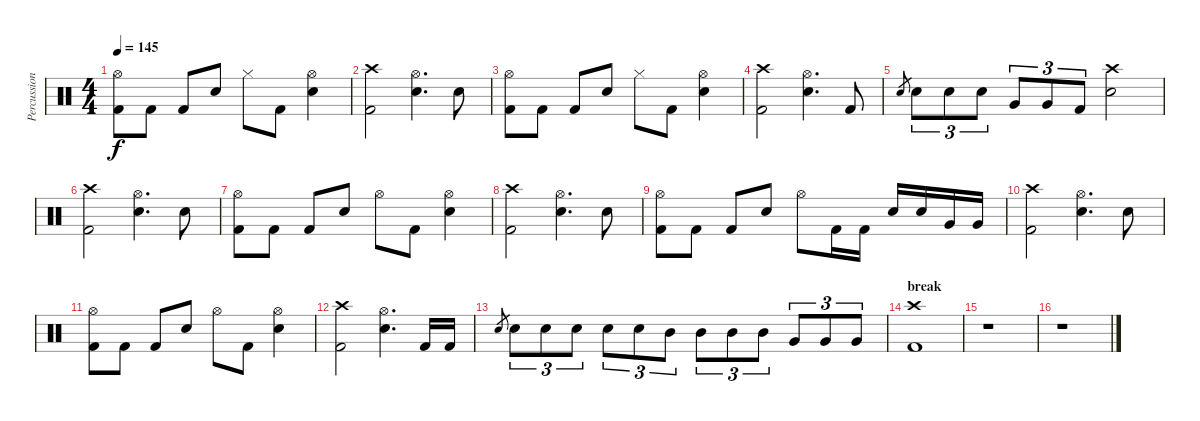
\track ("Percussion" "Percussion") {instrument percussion}
\staff {score}
\articulation defaults
\ts (4 4)
\tempo 145
\clef neutral
\ks c
("Hi-Hat (open)" "Kick (hit) 2").8{dy f} "Kick (hit) 2".8 "Kick (hit) 2".8 "Snare (hit) 2".8 "Hi-Hat (closed)".8 "Kick (hit) 2".8 ("Hi-Hat (open)" "Snare (hit) 2").4 |
("Crash high (hit)" "Kick (hit) 2").2 ("Hi-Hat (open)" "Snare (hit) 2").4{d} "Snare (hit) 2".8 |
("Hi-Hat (open)" "Kick (hit) 2").8 "Kick (hit) 2".8 "Kick (hit) 2".8 "Snare (hit) 2".8 "Hi-Hat (closed)".8 "Kick (hit) 2".8 ("Hi-Hat (open)" "Snare (hit) 2").4 |
("Crash high (hit)" "Kick (hit) 2").2 ("Hi-Hat (open)" "Snare (hit) 2").4{d} "Kick (hit) 2".8 |
"Snare (hit) 2".8{gr} "Snare (hit) 2".8{tu (3 2)} "Snare (hit) 2".8{tu (3 2)} "Snare (hit) 2".8{tu (3 2)} "Very Low Tom (hit)".8{tu (3 2)} "Very Low Tom (hit)".8{tu (3 2)} "Kick (hit) 2".8{tu (3 2)} ("Crash high (hit)" "Snare (hit) 2").2 |
("Crash high (hit)" "Kick (hit) 2").2 ("Hi-Hat (open)" "Snare (hit) 2").4{d} "Snare (hit) 2".8 |
("Hi-Hat (open)" "Kick (hit) 2").8 "Kick (hit) 2".8 "Kick (hit) 2".8 "Snare (hit) 2".8 "Hi-Hat (open)".8 "Kick (hit) 2".8 ("Hi-Hat (open)" "Snare (hit) 2").4 |
("Crash high (hit)" "Kick (hit) 2").2 ("Hi-Hat (open)" "Snare (hit) 2").4{d} "Snare (hit) 2".8 |
("Hi-Hat (open)" "Kick (hit) 2").8 "Kick (hit) 2".8 "Kick (hit) 2".8 "Snare (hit) 2".8 "Hi-Hat (open)".8 "Kick (hit) 2".16 "Kick (hit) 2".16 "Snare (hit) 2".16 "Snare (hit) 2".16 "Very Low Tom (hit)".16 "Very Low Tom (hit)".16 |
("Crash high (hit)" "Kick (hit) 2").2 ("Hi-Hat (open)" "Snare (hit) 2").4{d} "Snare (hit) 2".8 |
("Hi-Hat (open)" "Kick (hit) 2").8 "Kick (hit) 2".8 "Kick (hit) 2".8 "Snare (hit) 2".8 "Hi-Hat (open)".8 "Kick (hit) 2".8 ("Hi-Hat (open)" "Snare (hit) 2").4 |
("Crash high (hit)" "Kick (hit) 2").2 ("Hi-Hat (open)" "Snare (hit) 2").4{d} "Kick (hit) 2".16 "Kick (hit) 2".16 |
"Snare (hit) 2".8{gr} "Snare (hit) 2".8{tu (3 2)} "Snare (hit) 2".8{tu (3 2)} "Snare (hit) 2".8{tu (3 2)} "Snare (hit) 2".8{tu (3 2)} "Snare (hit) 2".8{tu (3 2)} "Mid Tom (hit)".8{tu (3 2)} "Mid Tom (hit)".8{tu (3 2)} "Mid Tom (hit)".8{tu (3 2)} "Mid Tom (hit)".8{tu (3 2)} "Very Low Tom (hit)".8{tu (3 2)} "Very Low Tom (hit)".8{tu (3 2)} "Very Low Tom (hit)".8{tu (3 2)} |
\section ("" "break")
("Crash high (hit)" "Kick (hit) 2").1 |
r.1 |
r.1
